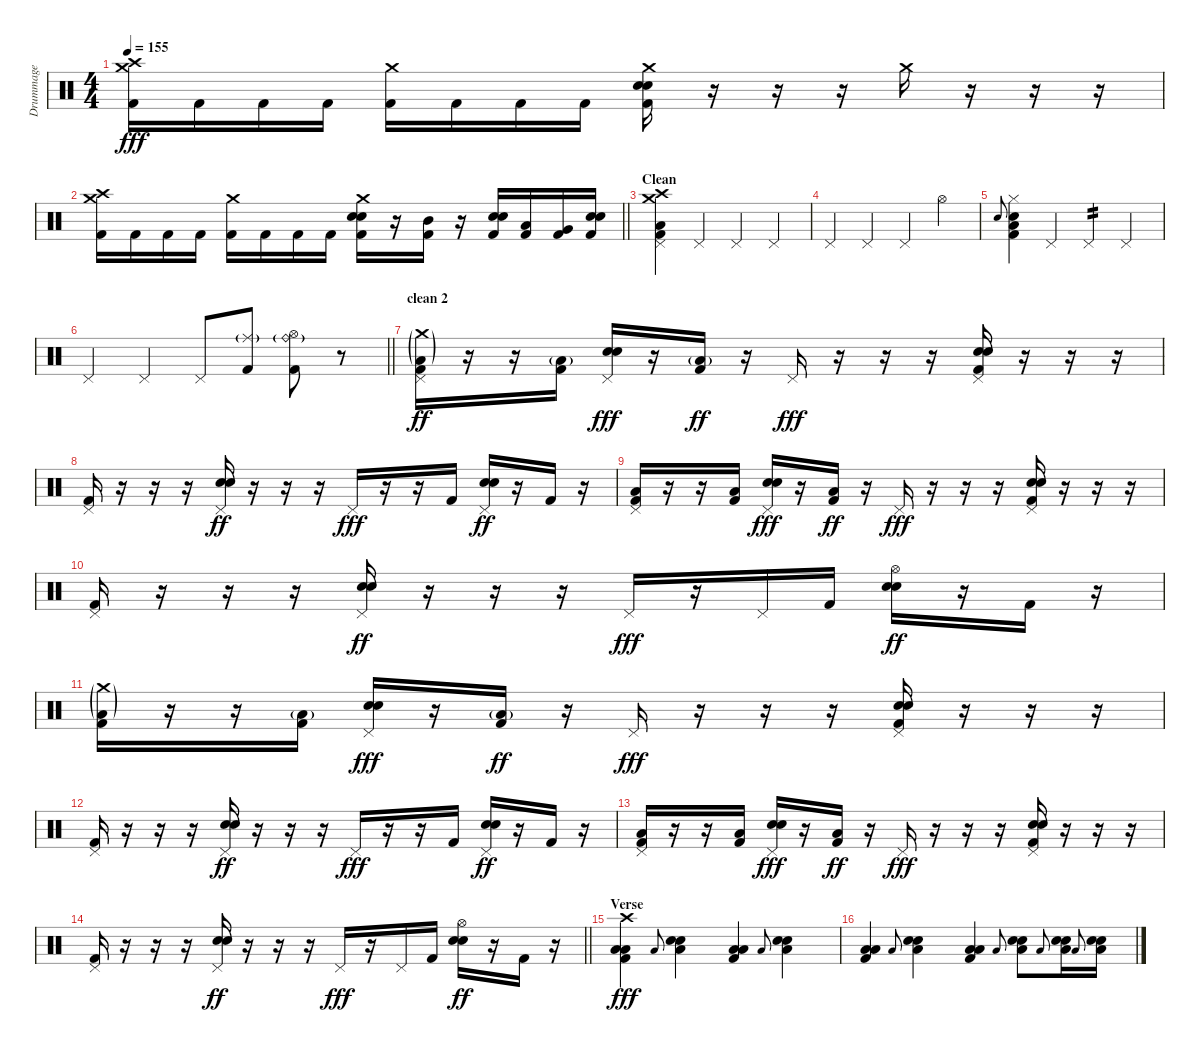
\track ("Drummage" "Drummage") {instrument percussion}
\staff {score}
\articulation defaults
\ts (4 4)
\tempo 155
\clef neutral
\ks c
("Crash high (hit)" "Crash medium (hit)" "Kick (hit) 2").16{dy fff} "Kick (hit) 2".16 "Kick (hit) 2".16 "Kick (hit) 2".16 ("Crash medium (hit)" "Kick (hit) 2").16 "Kick (hit) 2".16 "Kick (hit) 2".16 "Kick (hit) 2".16 ("Crash medium (hit)" "Electric Snare (hit)" "Snare (hit) 2" "Kick (hit) 2").16 r.16 r.16 r.16 "Crash medium (hit)".16 r.16 r.16 r.16 |
\barLineRight lightlight
("Crash high (hit)" "Crash medium (hit)" "Kick (hit) 2").16 "Kick (hit) 2".16 "Kick (hit) 2".16 "Kick (hit) 2".16 ("Crash medium (hit)" "Kick (hit) 2").16 "Kick (hit) 2".16 "Kick (hit) 2".16 "Kick (hit) 2".16 ("Crash medium (hit)" "Electric Snare (hit)" "Snare (hit) 2" "Kick (hit) 2").16 r.16 ("Mid Tom (hit)" "Kick (hit) 2").16 r.16 ("Snare (hit) 2" "Electric Snare (hit)" "Kick (hit) 2").16 ("Low Tom (hit)" "Kick (hit) 2").16 ("Very Low Tom (hit)" "Kick (hit) 2").16 ("Snare (hit) 2" "Electric Snare (hit)" "Kick (hit) 2").16 |
\section ("" "Clean")
("Crash high (hit)" "Crash medium (hit)" "Pedal Hi-Hat (hit)" "Low Floor Tom (hit)" "Kick (hit) 2").4 "Pedal Hi-Hat (hit)".4 "Pedal Hi-Hat (hit)".4 "Pedal Hi-Hat (hit)".4 |
"Pedal Hi-Hat (hit)".4 "Pedal Hi-Hat (hit)".4 "Pedal Hi-Hat (hit)".4 "Hi-Hat (open)".4 |
"Electric Snare (hit)".8{gr onbeat} ("Hi-Hat (closed)" "Low Floor Tom (hit)" "Snare (hit) 2" "Kick (hit) 2").4 "Pedal Hi-Hat (hit)".4 "Pedal Hi-Hat (hit)".4{tp 2} "Pedal Hi-Hat (hit)".4 |
\barLineRight lightlight "Pedal Hi-Hat (hit)".4 "Pedal Hi-Hat (hit)".4 "Pedal Hi-Hat (hit)".8
("Ride (middle)"{g} "Kick (hit) 2").8 ("Ride (bell)"{g} "Hi-Hat (open)" "Kick (hit) 2").8 r.8 |
\section ("" "clean 2")
("Pedal Hi-Hat (hit)" "Crash medium (hit)"{g} "Low Floor Tom (hit)"{g} "Kick (hit) 2").16{dy ff} r.16 r.16 ("Low Floor Tom (hit)"{g} "Kick (hit) 2").16 ("Pedal Hi-Hat (hit)" "Electric Snare (hit)" "Snare (hit) 2").16{dy fff} r.16 ("Low Floor Tom (hit)"{g} "Kick (hit) 2").16{dy ff} r.16 "Pedal Hi-Hat (hit)".16{dy fff} r.16 r.16 r.16 ("Pedal Hi-Hat (hit)" "Electric Snare (hit)" "Snare (hit) 2" "Kick (hit) 2").16 r.16 r.16 r.16 |
("Pedal Hi-Hat (hit)" "Kick (hit) 2").16 r.16 r.16 r.16 ("Pedal Hi-Hat (hit)" "Electric Snare (hit)" "Snare (hit) 2").16{dy ff} r.16 r.16 r.16 "Pedal Hi-Hat (hit)".16{dy fff} r.16 r.16 "Kick (hit) 2".16 ("Pedal Hi-Hat (hit)" "Electric Snare (hit)" "Snare (hit) 2").16{dy ff} r.16 "Kick (hit) 2".16 r.16 |
("Pedal Hi-Hat (hit)" "Low Floor Tom (hit)" "Kick (hit) 2").16 r.16 r.16 ("Low Floor Tom (hit)" "Kick (hit) 2").16 ("Pedal Hi-Hat (hit)" "Electric Snare (hit)" "Snare (hit) 2").16{dy fff} r.16 ("Low Floor Tom (hit)" "Kick (hit) 2").16{dy ff} r.16 "Pedal Hi-Hat (hit)".16{dy fff} r.16 r.16 r.16 ("Pedal Hi-Hat (hit)" "Electric Snare (hit)" "Snare (hit) 2" "Kick (hit) 2").16 r.16 r.16 r.16 |
("Pedal Hi-Hat (hit)" "Kick (hit) 2").16 r.16 r.16 r.16 ("Pedal Hi-Hat (hit)" "Electric Snare (hit)" "Snare (hit) 2").16{dy ff} r.16 r.16 r.16 "Pedal Hi-Hat (hit)".16{dy fff} r.16 "Pedal Hi-Hat (hit)".16 "Kick (hit) 2".16 ("Hi-Hat (open)" "Electric Snare (hit)" "Snare (hit) 2").16{dy ff} r.16 "Kick (hit) 2".16 r.16 |
("Crash medium (hit)"{g} "Low Floor Tom (hit)"{g} "Kick (hit) 2").16 r.16 r.16 ("Low Floor Tom (hit)"{g} "Kick (hit) 2").16 ("Pedal Hi-Hat (hit)" "Electric Snare (hit)" "Snare (hit) 2").16{dy fff} r.16 ("Low Floor Tom (hit)"{g} "Kick (hit) 2").16{dy ff} r.16 "Pedal Hi-Hat (hit)".16{dy fff} r.16 r.16 r.16 ("Pedal Hi-Hat (hit)" "Electric Snare (hit)" "Snare (hit) 2" "Kick (hit) 2").16 r.16 r.16 r.16 |
("Pedal Hi-Hat (hit)" "Kick (hit) 2").16 r.16 r.16 r.16 ("Pedal Hi-Hat (hit)" "Electric Snare (hit)" "Snare (hit) 2").16{dy ff} r.16 r.16 r.16 "Pedal Hi-Hat (hit)".16{dy fff} r.16 r.16 "Kick (hit) 2".16 ("Pedal Hi-Hat (hit)" "Electric Snare (hit)" "Snare (hit) 2").16{dy ff} r.16 "Kick (hit) 2".16 r.16 |
("Pedal Hi-Hat (hit)" "Low Floor Tom (hit)" "Kick (hit) 2").16 r.16 r.16 ("Low Floor Tom (hit)" "Kick (hit) 2").16 ("Pedal Hi-Hat (hit)" "Electric Snare (hit)" "Snare (hit) 2").16{dy fff} r.16 ("Low Floor Tom (hit)" "Kick (hit) 2").16{dy ff} r.16 "Pedal Hi-Hat (hit)".16{dy fff} r.16 r.16 r.16 ("Pedal Hi-Hat (hit)" "Electric Snare (hit)" "Snare (hit) 2" "Kick (hit) 2").16 r.16 r.16 r.16 |
\barLineRight lightlight
("Pedal Hi-Hat (hit)" "Kick (hit) 2").16 r.16 r.16 r.16 ("Pedal Hi-Hat (hit)" "Electric Snare (hit)" "Snare (hit) 2").16{dy ff} r.16 r.16 r.16 "Pedal Hi-Hat (hit)".16{dy fff} r.16 "Pedal Hi-Hat (hit)".16 "Kick (hit) 2".16 ("Hi-Hat (open)" "Electric Snare (hit)" "Snare (hit) 2").16{dy ff} r.16 "Kick (hit) 2".16 r.16 |
\section ("" "Verse")
("Crash high (hit)" "Low Tom (hit)" "Low Floor Tom (hit)" "Kick (hit) 2").4{dy fff} "Low Floor Tom (hit)".8{gr onbeat} ("Snare (hit) 2" "Electric Snare (hit)" "Low Tom (hit)").4 ("Low Tom (hit)" "Low Floor Tom (hit)" "Kick (hit) 2").4 "Low Floor Tom (hit)".8{gr onbeat} ("Snare (hit) 2" "Electric Snare (hit)" "Low Tom (hit)").4 |
("Low Tom (hit)" "Low Floor Tom (hit)" "Kick (hit) 2").4 "Low Floor Tom (hit)".8{gr onbeat} ("Snare (hit) 2" "Electric Snare (hit)" "Low Tom (hit)").4 ("Low Tom (hit)" "Low Floor Tom (hit)" "Kick (hit) 2").4 "Low Floor Tom (hit)".8{gr onbeat} ("Snare (hit) 2" "Electric Snare (hit)" "Low Tom (hit)").8 "Low Floor Tom (hit)".8{gr onbeat} ("Snare (hit) 2" "Electric Snare (hit)" "Low Tom (hit)").16 "Low Floor Tom (hit)".8{gr onbeat} ("Snare (hit) 2" "Electric Snare (hit)" "Low Tom (hit)").16
